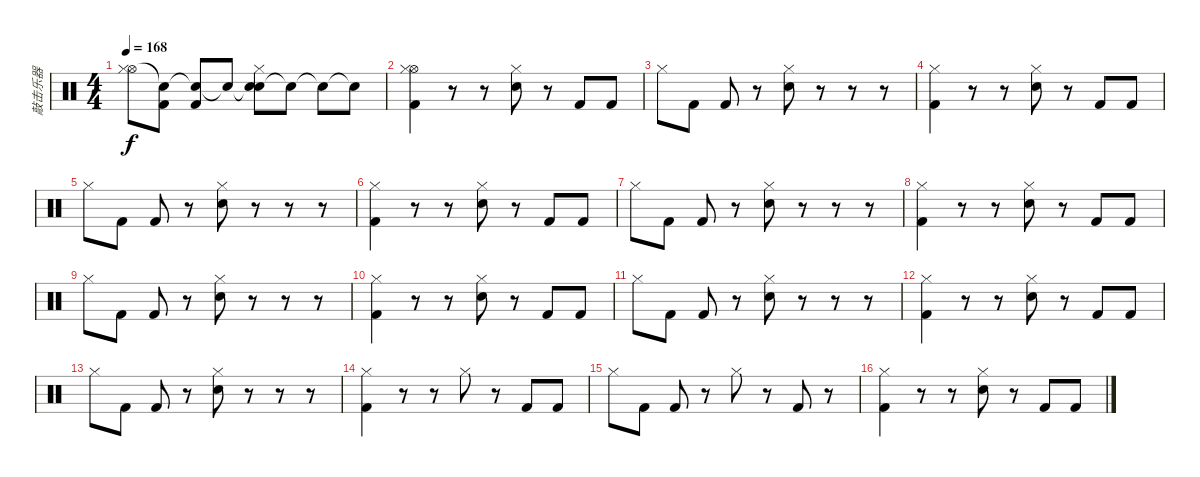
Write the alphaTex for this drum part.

\track ("敲击乐器" "敲击乐器") {instrument percussion}
\staff {score}
\articulation defaults
\ts (4 4)
\tempo 168
\clef neutral
\ks c
("Hi-Hat (open)" "Hi-Hat (closed)").8{dy f} ("Snare (hit)"{t} "Kick (hit) 2").8 ("Snare (hit)"{t} "Kick (hit) 2").8 "Snare (hit)"{t}.8 ("Snare (hit)"{t} "Hi-Hat (closed)" "Snare (hit) 2").8 "Snare (hit)"{t}.8 "Snare (hit)"{t}.8 "Snare (hit)"{t}.8 |
("Hi-Hat (open)" "Hi-Hat (closed)" "Kick (hit) 2").4 r.8 r.8 ("Hi-Hat (closed)" "Snare (hit) 2").8 r.8 "Kick (hit) 2".8 "Kick (hit) 2".8 |
"Hi-Hat (closed)".8 "Kick (hit) 2".8 "Kick (hit) 2".8 r.8 ("Hi-Hat (closed)" "Snare (hit) 2").8 r.8 r.8 r.8 |
("Hi-Hat (closed)" "Kick (hit) 2").4 r.8 r.8 ("Hi-Hat (closed)" "Snare (hit) 2").8 r.8 "Kick (hit) 2".8 "Kick (hit) 2".8 |
"Hi-Hat (closed)".8 "Kick (hit) 2".8 "Kick (hit) 2".8 r.8 ("Hi-Hat (closed)" "Snare (hit) 2").8 r.8 r.8 r.8 |
("Hi-Hat (closed)" "Kick (hit) 2").4 r.8 r.8 ("Hi-Hat (closed)" "Snare (hit) 2").8 r.8 "Kick (hit) 2".8 "Kick (hit) 2".8 |
"Hi-Hat (closed)".8 "Kick (hit) 2".8 "Kick (hit) 2".8 r.8 ("Hi-Hat (closed)" "Snare (hit) 2").8 r.8 r.8 r.8 |
("Hi-Hat (closed)" "Kick (hit) 2").4 r.8 r.8 ("Hi-Hat (closed)" "Snare (hit) 2").8 r.8 "Kick (hit) 2".8 "Kick (hit) 2".8 |
"Hi-Hat (closed)".8 "Kick (hit) 2".8 "Kick (hit) 2".8 r.8 ("Hi-Hat (closed)" "Snare (hit) 2").8 r.8 r.8 r.8 |
("Hi-Hat (closed)" "Kick (hit) 2").4 r.8 r.8 ("Hi-Hat (closed)" "Snare (hit) 2").8 r.8 "Kick (hit) 2".8 "Kick (hit) 2".8 |
"Hi-Hat (closed)".8 "Kick (hit) 2".8 "Kick (hit) 2".8 r.8 ("Hi-Hat (closed)" "Snare (hit) 2").8 r.8 r.8 r.8 |
("Hi-Hat (closed)" "Kick (hit) 2").4 r.8 r.8 ("Hi-Hat (closed)" "Snare (hit) 2").8 r.8 "Kick (hit) 2".8 "Kick (hit) 2".8 |
"Hi-Hat (closed)".8 "Kick (hit) 2".8 "Kick (hit) 2".8 r.8 ("Hi-Hat (closed)" "Snare (hit) 2").8 r.8 r.8 r.8 |
("Hi-Hat (closed)" "Kick (hit) 2").4 r.8 r.8 "Hi-Hat (closed)".8 r.8 "Kick (hit) 2".8 "Kick (hit) 2".8 |
"Hi-Hat (closed)".8 "Kick (hit) 2".8 "Kick (hit) 2".8 r.8 "Hi-Hat (closed)".8 r.8 "Kick (hit) 2".8 r.8 |
("Hi-Hat (closed)" "Kick (hit) 2").4 r.8 r.8 ("Hi-Hat (closed)" "Snare (hit) 2").8 r.8 "Kick (hit) 2".8 "Kick (hit) 2".8
